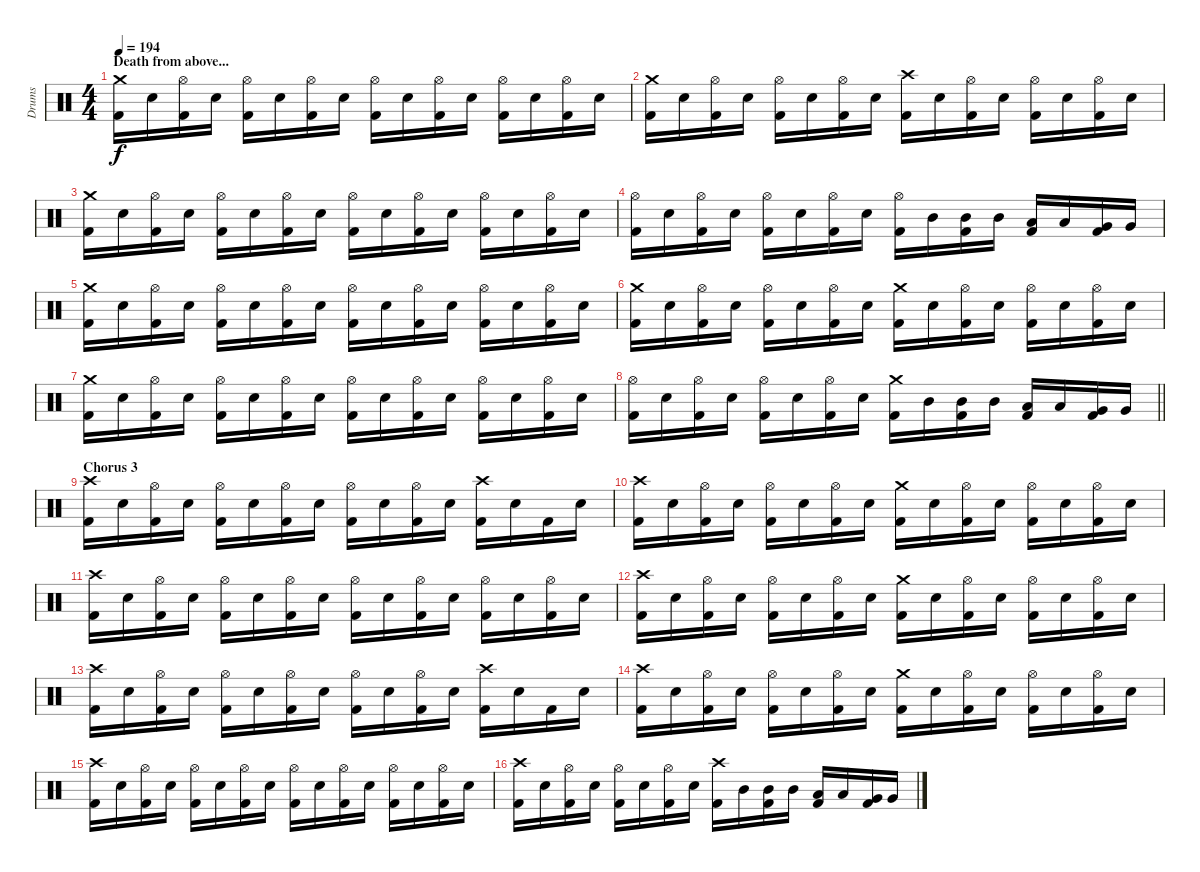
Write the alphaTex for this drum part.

\track ("Drums" "Drums") {instrument percussion}
\staff {score}
\articulation defaults
\ts (4 4)
\section ("" "Death from above...")
\tempo 194
\clef neutral
\ks c
("Crash medium (hit)" "Kick (hit) 2").16{dy f} "Electric Snare (hit)".16 ("Hi-Hat (open)" "Kick (hit) 2").16 "Electric Snare (hit)".16 ("Hi-Hat (open)" "Kick (hit) 2").16 "Electric Snare (hit)".16 ("Hi-Hat (open)" "Kick (hit) 2").16 "Electric Snare (hit)".16 ("Hi-Hat (open)" "Kick (hit) 2").16 "Electric Snare (hit)".16 ("Hi-Hat (open)" "Kick (hit) 2").16 "Electric Snare (hit)".16 ("Hi-Hat (open)" "Kick (hit) 2").16 "Electric Snare (hit)".16 ("Hi-Hat (open)" "Kick (hit) 2").16 "Electric Snare (hit)".16 |
("Crash medium (hit)" "Kick (hit) 2").16 "Electric Snare (hit)".16 ("Hi-Hat (open)" "Kick (hit) 2").16 "Electric Snare (hit)".16 ("Hi-Hat (open)" "Kick (hit) 2").16 "Electric Snare (hit)".16 ("Hi-Hat (open)" "Kick (hit) 2").16 "Electric Snare (hit)".16 ("Crash high (hit)" "Kick (hit) 2").16 "Electric Snare (hit)".16 ("Hi-Hat (open)" "Kick (hit) 2").16 "Electric Snare (hit)".16 ("Hi-Hat (open)" "Kick (hit) 2").16 "Electric Snare (hit)".16 ("Hi-Hat (open)" "Kick (hit) 2").16 "Electric Snare (hit)".16 |
("Crash medium (hit)" "Kick (hit) 2").16 "Electric Snare (hit)".16 ("Hi-Hat (open)" "Kick (hit) 2").16 "Electric Snare (hit)".16 ("Hi-Hat (open)" "Kick (hit) 2").16 "Electric Snare (hit)".16 ("Hi-Hat (open)" "Kick (hit) 2").16 "Electric Snare (hit)".16 ("Hi-Hat (open)" "Kick (hit) 2").16 "Electric Snare (hit)".16 ("Hi-Hat (open)" "Kick (hit) 2").16 "Electric Snare (hit)".16 ("Hi-Hat (open)" "Kick (hit) 2").16 "Electric Snare (hit)".16 ("Hi-Hat (open)" "Kick (hit) 2").16 "Electric Snare (hit)".16 |
("Hi-Hat (open)" "Kick (hit) 2").16 "Electric Snare (hit)".16 ("Hi-Hat (open)" "Kick (hit) 2").16 "Electric Snare (hit)".16 ("Hi-Hat (open)" "Kick (hit) 2").16 "Electric Snare (hit)".16 ("Hi-Hat (open)" "Kick (hit) 2").16 "Electric Snare (hit)".16 ("Hi-Hat (open)" "Kick (hit) 2").16 "Mid Tom (hit)".16 ("Mid Tom (hit)" "Kick (hit) 2").16 "Mid Tom (hit)".16 ("Low Tom (hit)" "Kick (hit) 2").16 "Low Tom (hit)".16 ("Very Low Tom (hit)" "Kick (hit) 2").16 "Very Low Tom (hit)".16 |
("Crash medium (hit)" "Kick (hit) 2").16 "Electric Snare (hit)".16 ("Hi-Hat (open)" "Kick (hit) 2").16 "Electric Snare (hit)".16 ("Hi-Hat (open)" "Kick (hit) 2").16 "Electric Snare (hit)".16 ("Hi-Hat (open)" "Kick (hit) 2").16 "Electric Snare (hit)".16 ("Hi-Hat (open)" "Kick (hit) 2").16 "Electric Snare (hit)".16 ("Hi-Hat (open)" "Kick (hit) 2").16 "Electric Snare (hit)".16 ("Hi-Hat (open)" "Kick (hit) 2").16 "Electric Snare (hit)".16 ("Hi-Hat (open)" "Kick (hit) 2").16 "Electric Snare (hit)".16 |
("Crash medium (hit)" "Kick (hit) 2").16 "Electric Snare (hit)".16 ("Hi-Hat (open)" "Kick (hit) 2").16 "Electric Snare (hit)".16 ("Hi-Hat (open)" "Kick (hit) 2").16 "Electric Snare (hit)".16 ("Hi-Hat (open)" "Kick (hit) 2").16 "Electric Snare (hit)".16 ("Crash medium (hit)" "Kick (hit) 2").16 "Electric Snare (hit)".16 ("Hi-Hat (open)" "Kick (hit) 2").16 "Electric Snare (hit)".16 ("Hi-Hat (open)" "Kick (hit) 2").16 "Electric Snare (hit)".16 ("Hi-Hat (open)" "Kick (hit) 2").16 "Electric Snare (hit)".16 |
("Crash medium (hit)" "Kick (hit) 2").16 "Electric Snare (hit)".16 ("Hi-Hat (open)" "Kick (hit) 2").16 "Electric Snare (hit)".16 ("Hi-Hat (open)" "Kick (hit) 2").16 "Electric Snare (hit)".16 ("Hi-Hat (open)" "Kick (hit) 2").16 "Electric Snare (hit)".16 ("Hi-Hat (open)" "Kick (hit) 2").16 "Electric Snare (hit)".16 ("Hi-Hat (open)" "Kick (hit) 2").16 "Electric Snare (hit)".16 ("Hi-Hat (open)" "Kick (hit) 2").16 "Electric Snare (hit)".16 ("Hi-Hat (open)" "Kick (hit) 2").16 "Electric Snare (hit)".16 |
\barLineRight lightlight
("Hi-Hat (open)" "Kick (hit) 2").16 "Electric Snare (hit)".16 ("Hi-Hat (open)" "Kick (hit) 2").16 "Electric Snare (hit)".16 ("Hi-Hat (open)" "Kick (hit) 2").16 "Electric Snare (hit)".16 ("Hi-Hat (open)" "Kick (hit) 2").16 "Electric Snare (hit)".16 ("Crash medium (hit)" "Kick (hit) 2").16 "Mid Tom (hit)".16 ("Mid Tom (hit)" "Kick (hit) 2").16 "Mid Tom (hit)".16 ("Low Tom (hit)" "Kick (hit) 2").16 "Low Tom (hit)".16 ("Very Low Tom (hit)" "Kick (hit) 2").16 "Very Low Tom (hit)".16 |
\section ("" "Chorus 3")
("Crash high (hit)" "Kick (hit) 2").16 "Electric Snare (hit)".16 ("Hi-Hat (open)" "Kick (hit) 2").16 "Electric Snare (hit)".16 ("Hi-Hat (open)" "Kick (hit) 2").16 "Electric Snare (hit)".16 ("Hi-Hat (open)" "Kick (hit) 2").16 "Electric Snare (hit)".16 ("Hi-Hat (open)" "Kick (hit) 2").16 "Electric Snare (hit)".16 ("Hi-Hat (open)" "Kick (hit) 2").16 "Electric Snare (hit)".16 ("Crash high (hit)" "Kick (hit) 2").16 "Electric Snare (hit)".16 "Kick (hit) 2".16 "Electric Snare (hit)".16 |
("Crash high (hit)" "Kick (hit) 2").16 "Electric Snare (hit)".16 ("Hi-Hat (open)" "Kick (hit) 2").16 "Electric Snare (hit)".16 ("Hi-Hat (open)" "Kick (hit) 2").16 "Electric Snare (hit)".16 ("Hi-Hat (open)" "Kick (hit) 2").16 "Electric Snare (hit)".16 ("Crash medium (hit)" "Kick (hit) 2").16 "Electric Snare (hit)".16 ("Hi-Hat (open)" "Kick (hit) 2").16 "Electric Snare (hit)".16 ("Hi-Hat (open)" "Kick (hit) 2").16 "Electric Snare (hit)".16 ("Hi-Hat (open)" "Kick (hit) 2").16 "Electric Snare (hit)".16 |
("Crash high (hit)" "Kick (hit) 2").16 "Electric Snare (hit)".16 ("Hi-Hat (open)" "Kick (hit) 2").16 "Electric Snare (hit)".16 ("Hi-Hat (open)" "Kick (hit) 2").16 "Electric Snare (hit)".16 ("Hi-Hat (open)" "Kick (hit) 2").16 "Electric Snare (hit)".16 ("Hi-Hat (open)" "Kick (hit) 2").16 "Electric Snare (hit)".16 ("Hi-Hat (open)" "Kick (hit) 2").16 "Electric Snare (hit)".16 ("Hi-Hat (open)" "Kick (hit) 2").16 "Electric Snare (hit)".16 ("Hi-Hat (open)" "Kick (hit) 2").16 "Electric Snare (hit)".16 |
("Crash high (hit)" "Kick (hit) 2").16 "Electric Snare (hit)".16 ("Hi-Hat (open)" "Kick (hit) 2").16 "Electric Snare (hit)".16 ("Hi-Hat (open)" "Kick (hit) 2").16 "Electric Snare (hit)".16 ("Hi-Hat (open)" "Kick (hit) 2").16 "Electric Snare (hit)".16 ("Crash medium (hit)" "Kick (hit) 2").16 "Electric Snare (hit)".16 ("Hi-Hat (open)" "Kick (hit) 2").16 "Electric Snare (hit)".16 ("Hi-Hat (open)" "Kick (hit) 2").16 "Electric Snare (hit)".16 ("Hi-Hat (open)" "Kick (hit) 2").16 "Electric Snare (hit)".16 |
("Crash high (hit)" "Kick (hit) 2").16 "Electric Snare (hit)".16 ("Hi-Hat (open)" "Kick (hit) 2").16 "Electric Snare (hit)".16 ("Hi-Hat (open)" "Kick (hit) 2").16 "Electric Snare (hit)".16 ("Hi-Hat (open)" "Kick (hit) 2").16 "Electric Snare (hit)".16 ("Hi-Hat (open)" "Kick (hit) 2").16 "Electric Snare (hit)".16 ("Hi-Hat (open)" "Kick (hit) 2").16 "Electric Snare (hit)".16 ("Crash high (hit)" "Kick (hit) 2").16 "Electric Snare (hit)".16 "Kick (hit) 2".16 "Electric Snare (hit)".16 |
("Crash high (hit)" "Kick (hit) 2").16 "Electric Snare (hit)".16 ("Hi-Hat (open)" "Kick (hit) 2").16 "Electric Snare (hit)".16 ("Hi-Hat (open)" "Kick (hit) 2").16 "Electric Snare (hit)".16 ("Hi-Hat (open)" "Kick (hit) 2").16 "Electric Snare (hit)".16 ("Crash medium (hit)" "Kick (hit) 2").16 "Electric Snare (hit)".16 ("Hi-Hat (open)" "Kick (hit) 2").16 "Electric Snare (hit)".16 ("Hi-Hat (open)" "Kick (hit) 2").16 "Electric Snare (hit)".16 ("Hi-Hat (open)" "Kick (hit) 2").16 "Electric Snare (hit)".16 |
("Crash high (hit)" "Kick (hit) 2").16 "Electric Snare (hit)".16 ("Hi-Hat (open)" "Kick (hit) 2").16 "Electric Snare (hit)".16 ("Hi-Hat (open)" "Kick (hit) 2").16 "Electric Snare (hit)".16 ("Hi-Hat (open)" "Kick (hit) 2").16 "Electric Snare (hit)".16 ("Hi-Hat (open)" "Kick (hit) 2").16 "Electric Snare (hit)".16 ("Hi-Hat (open)" "Kick (hit) 2").16 "Electric Snare (hit)".16 ("Hi-Hat (open)" "Kick (hit) 2").16 "Electric Snare (hit)".16 ("Hi-Hat (open)" "Kick (hit) 2").16 "Electric Snare (hit)".16 |
("Crash high (hit)" "Kick (hit) 2").16 "Electric Snare (hit)".16 ("Hi-Hat (open)" "Kick (hit) 2").16 "Electric Snare (hit)".16 ("Hi-Hat (open)" "Kick (hit) 2").16 "Electric Snare (hit)".16 ("Hi-Hat (open)" "Kick (hit) 2").16 "Electric Snare (hit)".16 ("Crash high (hit)" "Kick (hit) 2").16 "Mid Tom (hit)".16 ("Mid Tom (hit)" "Kick (hit) 2").16 "Mid Tom (hit)".16 ("Low Tom (hit)" "Kick (hit) 2").16 "Low Tom (hit)".16 ("Very Low Tom (hit)" "Kick (hit) 2").16 "Very Low Tom (hit)".16
